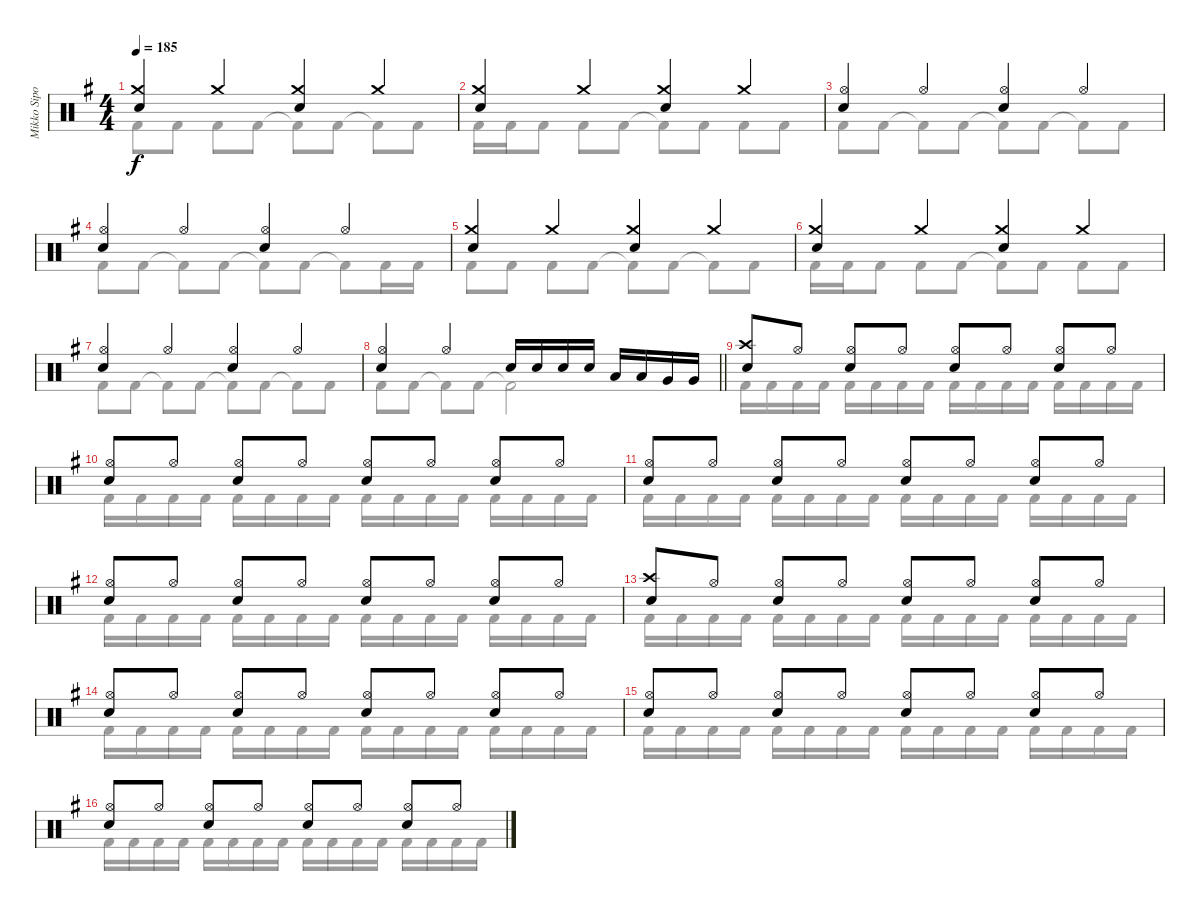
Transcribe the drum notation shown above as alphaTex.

\track ("Mikko Sipola (drums)" "Mikko Sipo") {instrument percussion}
\staff {score}
\articulation defaults
\voice
\ts (4 4)
\tempo 185
\clef neutral
\ks eminor
("Crash medium (hit)" "Electric Snare (hit)").4{dy f} "Crash medium (hit)".4 ("Crash medium (hit)" "Electric Snare (hit)").4 "Crash medium (hit)".4 |
("Crash medium (hit)" "Electric Snare (hit)").4 "Crash medium (hit)".4 ("Crash medium (hit)" "Electric Snare (hit)").4 "Crash medium (hit)".4 |
("Hi-Hat (open)" "Electric Snare (hit)").4 "Hi-Hat (open)".4 ("Hi-Hat (open)" "Electric Snare (hit)").4 "Hi-Hat (open)".4 |
("Hi-Hat (open)" "Electric Snare (hit)").4 "Hi-Hat (open)".4 ("Hi-Hat (open)" "Electric Snare (hit)").4 "Hi-Hat (open)".4 |
("Crash medium (hit)" "Electric Snare (hit)").4 "Crash medium (hit)".4 ("Crash medium (hit)" "Electric Snare (hit)").4 "Crash medium (hit)".4 |
("Crash medium (hit)" "Electric Snare (hit)").4 "Crash medium (hit)".4 ("Crash medium (hit)" "Electric Snare (hit)").4 "Crash medium (hit)".4 |
("Hi-Hat (open)" "Electric Snare (hit)").4 "Hi-Hat (open)".4 ("Hi-Hat (open)" "Electric Snare (hit)").4 "Hi-Hat (open)".4 |
\barLineRight lightlight
("Hi-Hat (open)" "Electric Snare (hit)").4 "Hi-Hat (open)".4 "Electric Snare (hit)".16 "Electric Snare (hit)".16 "Electric Snare (hit)".16 "Electric Snare (hit)".16 "Low Tom (hit)".16 "Low Tom (hit)".16 "Very Low Tom (hit)".16 "Very Low Tom (hit)".16 |
("Crash high (hit)" "Electric Snare (hit)").8 "Hi-Hat (open)".8 ("Hi-Hat (open)" "Electric Snare (hit)").8 "Hi-Hat (open)".8 ("Hi-Hat (open)" "Electric Snare (hit)").8 "Hi-Hat (open)".8 ("Hi-Hat (open)" "Electric Snare (hit)").8 "Hi-Hat (open)".8 |
("Hi-Hat (open)" "Electric Snare (hit)").8 "Hi-Hat (open)".8 ("Hi-Hat (open)" "Electric Snare (hit)").8 "Hi-Hat (open)".8 ("Hi-Hat (open)" "Electric Snare (hit)").8 "Hi-Hat (open)".8 ("Hi-Hat (open)" "Electric Snare (hit)").8 "Hi-Hat (open)".8 |
("Hi-Hat (open)" "Electric Snare (hit)").8 "Hi-Hat (open)".8 ("Hi-Hat (open)" "Electric Snare (hit)").8 "Hi-Hat (open)".8 ("Hi-Hat (open)" "Electric Snare (hit)").8 "Hi-Hat (open)".8 ("Hi-Hat (open)" "Electric Snare (hit)").8 "Hi-Hat (open)".8 |
("Hi-Hat (open)" "Electric Snare (hit)").8 "Hi-Hat (open)".8 ("Hi-Hat (open)" "Electric Snare (hit)").8 "Hi-Hat (open)".8 ("Hi-Hat (open)" "Electric Snare (hit)").8 "Hi-Hat (open)".8 ("Hi-Hat (open)" "Electric Snare (hit)").8 "Hi-Hat (open)".8 |
("Crash high (hit)" "Electric Snare (hit)").8 "Hi-Hat (open)".8 ("Hi-Hat (open)" "Electric Snare (hit)").8 "Hi-Hat (open)".8 ("Hi-Hat (open)" "Electric Snare (hit)").8 "Hi-Hat (open)".8 ("Hi-Hat (open)" "Electric Snare (hit)").8 "Hi-Hat (open)".8 |
("Hi-Hat (open)" "Electric Snare (hit)").8 "Hi-Hat (open)".8 ("Hi-Hat (open)" "Electric Snare (hit)").8 "Hi-Hat (open)".8 ("Hi-Hat (open)" "Electric Snare (hit)").8 "Hi-Hat (open)".8 ("Hi-Hat (open)" "Electric Snare (hit)").8 "Hi-Hat (open)".8 |
("Hi-Hat (open)" "Electric Snare (hit)").8 "Hi-Hat (open)".8 ("Hi-Hat (open)" "Electric Snare (hit)").8 "Hi-Hat (open)".8 ("Hi-Hat (open)" "Electric Snare (hit)").8 "Hi-Hat (open)".8 ("Hi-Hat (open)" "Electric Snare (hit)").8 "Hi-Hat (open)".8 |
("Hi-Hat (open)" "Electric Snare (hit)").8 "Hi-Hat (open)".8 ("Hi-Hat (open)" "Electric Snare (hit)").8 "Hi-Hat (open)".8 ("Hi-Hat (open)" "Electric Snare (hit)").8 "Hi-Hat (open)".8 ("Hi-Hat (open)" "Electric Snare (hit)").8 "Hi-Hat (open)".8
\voice
\clef neutral
\ottava regular
\simile none
\ks eminor "Kick (hit) 2".8{dy f} "Kick (hit) 2".8 "Kick (hit) 2".8 "Kick (hit) 2".8 "Kick (hit) 2"{t}.8 "Kick (hit) 2".8 "Kick (hit) 2"{t}.8 "Kick (hit) 2".8
|
"Kick (hit) 2".16 "Kick (hit) 2".16 "Kick (hit) 2".8 "Kick (hit) 2".8 "Kick (hit) 2".8 "Kick (hit) 2"{t}.8 "Kick (hit) 2".8 "Kick (hit) 2".8 "Kick (hit) 2".8 |
"Kick (hit) 2".8 "Kick (hit) 2".8 "Kick (hit) 2"{t}.8 "Kick (hit) 2".8 "Kick (hit) 2"{t}.8 "Kick (hit) 2".8 "Kick (hit) 2"{t}.8 "Kick (hit) 2".8 |
"Kick (hit) 2".8 "Kick (hit) 2".8 "Kick (hit) 2"{t}.8 "Kick (hit) 2".8 "Kick (hit) 2"{t}.8 "Kick (hit) 2".8 "Kick (hit) 2"{t}.8 "Kick (hit) 2".16 "Kick (hit) 2".16 |
"Kick (hit) 2".8 "Kick (hit) 2".8 "Kick (hit) 2".8 "Kick (hit) 2".8 "Kick (hit) 2"{t}.8 "Kick (hit) 2".8 "Kick (hit) 2"{t}.8 "Kick (hit) 2".8 |
"Kick (hit) 2".16 "Kick (hit) 2".16 "Kick (hit) 2".8 "Kick (hit) 2".8 "Kick (hit) 2".8 "Kick (hit) 2"{t}.8 "Kick (hit) 2".8 "Kick (hit) 2".8 "Kick (hit) 2".8 |
"Kick (hit) 2".8 "Kick (hit) 2".8 "Kick (hit) 2"{t}.8 "Kick (hit) 2".8 "Kick (hit) 2"{t}.8 "Kick (hit) 2".8 "Kick (hit) 2"{t}.8 "Kick (hit) 2".8 |
\barLineRight lightlight "Kick (hit) 2".8 "Kick (hit) 2".8 "Kick (hit) 2"{t}.8 "Kick (hit) 2".8 "Kick (hit) 2"{t}.2
|
"Kick (hit) 2".16 "Kick (hit) 2".16 "Kick (hit) 2".16 "Kick (hit) 2".16 "Kick (hit) 2".16 "Kick (hit) 2".16 "Kick (hit) 2".16 "Kick (hit) 2".16 "Kick (hit) 2".16 "Kick (hit) 2".16 "Kick (hit) 2".16 "Kick (hit) 2".16 "Kick (hit) 2".16 "Kick (hit) 2".16 "Kick (hit) 2".16 "Kick (hit) 2".16 |
"Kick (hit) 2".16 "Kick (hit) 2".16 "Kick (hit) 2".16 "Kick (hit) 2".16 "Kick (hit) 2".16 "Kick (hit) 2".16 "Kick (hit) 2".16 "Kick (hit) 2".16 "Kick (hit) 2".16 "Kick (hit) 2".16 "Kick (hit) 2".16 "Kick (hit) 2".16 "Kick (hit) 2".16 "Kick (hit) 2".16 "Kick (hit) 2".16 "Kick (hit) 2".16 |
"Kick (hit) 2".16 "Kick (hit) 2".16 "Kick (hit) 2".16 "Kick (hit) 2".16 "Kick (hit) 2".16 "Kick (hit) 2".16 "Kick (hit) 2".16 "Kick (hit) 2".16 "Kick (hit) 2".16 "Kick (hit) 2".16 "Kick (hit) 2".16 "Kick (hit) 2".16 "Kick (hit) 2".16 "Kick (hit) 2".16 "Kick (hit) 2".16 "Kick (hit) 2".16 |
"Kick (hit) 2".16 "Kick (hit) 2".16 "Kick (hit) 2".16 "Kick (hit) 2".16 "Kick (hit) 2".16 "Kick (hit) 2".16 "Kick (hit) 2".16 "Kick (hit) 2".16 "Kick (hit) 2".16 "Kick (hit) 2".16 "Kick (hit) 2".16 "Kick (hit) 2".16 "Kick (hit) 2".16 "Kick (hit) 2".16 "Kick (hit) 2".16 "Kick (hit) 2".16 |
"Kick (hit) 2".16 "Kick (hit) 2".16 "Kick (hit) 2".16 "Kick (hit) 2".16 "Kick (hit) 2".16 "Kick (hit) 2".16 "Kick (hit) 2".16 "Kick (hit) 2".16 "Kick (hit) 2".16 "Kick (hit) 2".16 "Kick (hit) 2".16 "Kick (hit) 2".16 "Kick (hit) 2".16 "Kick (hit) 2".16 "Kick (hit) 2".16 "Kick (hit) 2".16 |
"Kick (hit) 2".16 "Kick (hit) 2".16 "Kick (hit) 2".16 "Kick (hit) 2".16 "Kick (hit) 2".16 "Kick (hit) 2".16 "Kick (hit) 2".16 "Kick (hit) 2".16 "Kick (hit) 2".16 "Kick (hit) 2".16 "Kick (hit) 2".16 "Kick (hit) 2".16 "Kick (hit) 2".16 "Kick (hit) 2".16 "Kick (hit) 2".16 "Kick (hit) 2".16 |
"Kick (hit) 2".16 "Kick (hit) 2".16 "Kick (hit) 2".16 "Kick (hit) 2".16 "Kick (hit) 2".16 "Kick (hit) 2".16 "Kick (hit) 2".16 "Kick (hit) 2".16 "Kick (hit) 2".16 "Kick (hit) 2".16 "Kick (hit) 2".16 "Kick (hit) 2".16 "Kick (hit) 2".16 "Kick (hit) 2".16 "Kick (hit) 2".16 "Kick (hit) 2".16 |
"Kick (hit) 2".16 "Kick (hit) 2".16 "Kick (hit) 2".16 "Kick (hit) 2".16 "Kick (hit) 2".16 "Kick (hit) 2".16 "Kick (hit) 2".16 "Kick (hit) 2".16 "Kick (hit) 2".16 "Kick (hit) 2".16 "Kick (hit) 2".16 "Kick (hit) 2".16 "Kick (hit) 2".16 "Kick (hit) 2".16 "Kick (hit) 2".16 "Kick (hit) 2".16
